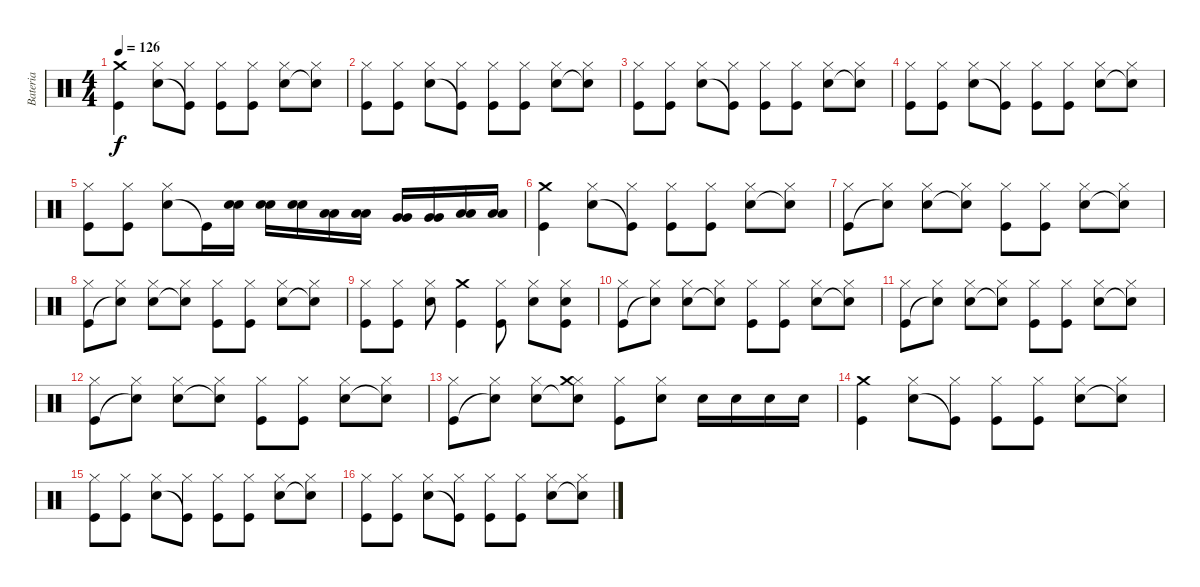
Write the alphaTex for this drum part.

\track ("Bateria" "Bateria") {instrument percussion}
\staff {score}
\articulation defaults
\ts (4 4)
\tempo 126
\clef neutral
\ks c
("Kick (hit)" "Crash medium (hit)").4{dy f} ("Snare (hit) 2" "Hi-Hat (closed)").8 ("Kick (hit)"{t} "Hi-Hat (closed)").8 ("Kick (hit)" "Hi-Hat (closed)").8 ("Kick (hit)" "Hi-Hat (closed)").8 ("Snare (hit) 2" "Hi-Hat (closed)").8 ("Snare (hit)"{t} "Hi-Hat (closed)").8 |
("Kick (hit)" "Hi-Hat (closed)").8 ("Kick (hit)" "Hi-Hat (closed)").8 ("Snare (hit) 2" "Hi-Hat (closed)").8 ("Kick (hit)"{t} "Hi-Hat (closed)").8 ("Kick (hit)" "Hi-Hat (closed)").8 ("Kick (hit)" "Hi-Hat (closed)").8 ("Snare (hit) 2" "Hi-Hat (closed)").8 ("Snare (hit)"{t} "Hi-Hat (closed)").8 |
("Kick (hit)" "Hi-Hat (closed)").8 ("Kick (hit)" "Hi-Hat (closed)").8 ("Snare (hit) 2" "Hi-Hat (closed)").8 ("Kick (hit)"{t} "Hi-Hat (closed)").8 ("Kick (hit)" "Hi-Hat (closed)").8 ("Kick (hit)" "Hi-Hat (closed)").8 ("Snare (hit) 2" "Hi-Hat (closed)").8 ("Snare (hit)"{t} "Hi-Hat (closed)").8 |
("Kick (hit)" "Hi-Hat (closed)").8 ("Kick (hit)" "Hi-Hat (closed)").8 ("Snare (hit) 2" "Hi-Hat (closed)").8 ("Kick (hit)"{t} "Hi-Hat (closed)").8 ("Kick (hit)" "Hi-Hat (closed)").8 ("Kick (hit)" "Hi-Hat (closed)").8 ("Snare (hit) 2" "Hi-Hat (closed)").8 ("Snare (hit)"{t} "Hi-Hat (closed)").8 |
("Kick (hit)" "Hi-Hat (closed)").8 ("Kick (hit)" "Hi-Hat (closed)").8 ("Snare (hit) 2" "Hi-Hat (closed)").8 "Kick (hit)"{t}.16 ("Snare (hit) 2" "Snare (hit) 2").16 ("Snare (hit) 2" "Snare (hit) 2").16 ("Snare (hit) 2" "Snare (hit) 2").16 ("Low Tom (hit)" "Low Tom (hit)").16 ("Low Tom (hit)" "Low Tom (hit)").16 ("Very Low Tom (hit)" "Very Low Tom (hit)").16 ("Very Low Tom (hit)" "Very Low Tom (hit)").16 ("Low Floor Tom (hit)" "Low Floor Tom (hit)").16 ("Low Floor Tom (hit)" "Low Floor Tom (hit)").16 |
("Kick (hit)" "Crash medium (hit)").4 ("Snare (hit) 2" "Hi-Hat (closed)").8 ("Kick (hit)"{t} "Hi-Hat (closed)").8 ("Kick (hit)" "Hi-Hat (closed)").8 ("Kick (hit)" "Hi-Hat (closed)").8 ("Snare (hit) 2" "Hi-Hat (closed)").8 ("Snare (hit)"{t} "Hi-Hat (closed)").8 |
("Kick (hit)" "Hi-Hat (closed)").8 ("Snare (hit)"{t} "Hi-Hat (closed)").8 ("Snare (hit) 2" "Hi-Hat (closed)").8 ("Snare (hit)"{t} "Hi-Hat (closed)").8 ("Kick (hit)" "Hi-Hat (closed)").8 ("Kick (hit)" "Hi-Hat (closed)").8 ("Snare (hit) 2" "Hi-Hat (closed)").8 ("Snare (hit)"{t} "Hi-Hat (closed)").8 |
("Kick (hit)" "Hi-Hat (closed)").8 ("Snare (hit)"{t} "Hi-Hat (closed)").8 ("Snare (hit) 2" "Hi-Hat (closed)").8 ("Snare (hit)"{t} "Hi-Hat (closed)").8 ("Kick (hit)" "Hi-Hat (closed)").8 ("Kick (hit)" "Hi-Hat (closed)").8 ("Snare (hit) 2" "Hi-Hat (closed)").8 ("Snare (hit)"{t} "Hi-Hat (closed)").8 |
("Kick (hit)" "Hi-Hat (closed)").8 ("Kick (hit)" "Hi-Hat (closed)").8 ("Snare (hit) 2" "Hi-Hat (closed)").8 ("Kick (hit)" "Crash medium (hit)").4 ("Kick (hit)" "Hi-Hat (closed)").8 ("Snare (hit) 2" "Hi-Hat (closed)").8 ("Kick (hit)" "Hi-Hat (closed)" "Snare (hit)").8 |
("Kick (hit)" "Hi-Hat (closed)").8 ("Snare (hit)"{t} "Hi-Hat (closed)").8 ("Snare (hit) 2" "Hi-Hat (closed)").8 ("Snare (hit)"{t} "Hi-Hat (closed)").8 ("Kick (hit)" "Hi-Hat (closed)").8 ("Kick (hit)" "Hi-Hat (closed)").8 ("Snare (hit) 2" "Hi-Hat (closed)").8 ("Snare (hit)"{t} "Hi-Hat (closed)").8 |
("Kick (hit)" "Hi-Hat (closed)").8 ("Snare (hit)"{t} "Hi-Hat (closed)").8 ("Snare (hit) 2" "Hi-Hat (closed)").8 ("Snare (hit)"{t} "Hi-Hat (closed)").8 ("Kick (hit)" "Hi-Hat (closed)").8 ("Kick (hit)" "Hi-Hat (closed)").8 ("Snare (hit) 2" "Hi-Hat (closed)").8 ("Snare (hit)"{t} "Hi-Hat (closed)").8 |
("Kick (hit)" "Hi-Hat (closed)").8 ("Snare (hit)"{t} "Hi-Hat (closed)").8 ("Snare (hit) 2" "Hi-Hat (closed)").8 ("Snare (hit)"{t} "Hi-Hat (closed)").8 ("Kick (hit)" "Hi-Hat (closed)").8 ("Kick (hit)" "Hi-Hat (closed)").8 ("Snare (hit) 2" "Hi-Hat (closed)").8 ("Snare (hit)"{t} "Hi-Hat (closed)").8 |
("Kick (hit)" "Hi-Hat (closed)").8 ("Snare (hit)"{t} "Hi-Hat (closed)").8 ("Snare (hit) 2" "Hi-Hat (closed)").8 ("Snare (hit)"{t} "Hi-Hat (closed)" "Crash medium (hit)").8 ("Kick (hit)" "Hi-Hat (closed)").8 ("Snare (hit) 2" "Hi-Hat (closed)").8 "Snare (hit) 2".16 "Snare (hit) 2".16 "Snare (hit) 2".16 "Snare (hit) 2".16 |
("Kick (hit)" "Crash medium (hit)").4 ("Snare (hit) 2" "Hi-Hat (closed)").8 ("Kick (hit)"{t} "Hi-Hat (closed)").8 ("Kick (hit)" "Hi-Hat (closed)").8 ("Kick (hit)" "Hi-Hat (closed)").8 ("Snare (hit) 2" "Hi-Hat (closed)").8 ("Snare (hit)"{t} "Hi-Hat (closed)").8 |
("Kick (hit)" "Hi-Hat (closed)").8 ("Kick (hit)" "Hi-Hat (closed)").8 ("Snare (hit) 2" "Hi-Hat (closed)").8 ("Kick (hit)"{t} "Hi-Hat (closed)").8 ("Kick (hit)" "Hi-Hat (closed)").8 ("Kick (hit)" "Hi-Hat (closed)").8 ("Snare (hit) 2" "Hi-Hat (closed)").8 ("Snare (hit)"{t} "Hi-Hat (closed)").8 |
("Kick (hit)" "Hi-Hat (closed)").8 ("Kick (hit)" "Hi-Hat (closed)").8 ("Snare (hit) 2" "Hi-Hat (closed)").8 ("Kick (hit)"{t} "Hi-Hat (closed)").8 ("Kick (hit)" "Hi-Hat (closed)").8 ("Kick (hit)" "Hi-Hat (closed)").8 ("Snare (hit) 2" "Hi-Hat (closed)").8 ("Snare (hit)"{t} "Hi-Hat (closed)").8
